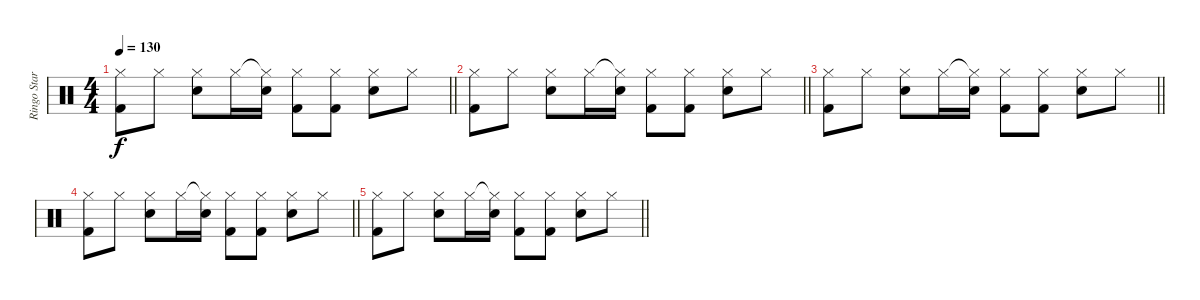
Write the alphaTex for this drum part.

\track ("Ringo Starr" "Ringo Star") {instrument percussion}
\staff {score}
\articulation defaults
\ts (4 4)
\tempo 130
\clef neutral
\barLineRight lightlight
\ks c
("Hi-Hat (closed)" "Kick (hit) 2").8{dy f volume 8} "Hi-Hat (closed)".8 ("Hi-Hat (closed)" "Snare (hit) 2").8 "Hi-Hat (closed)".16 ("Hi-Hat (closed)"{t} "Snare (hit) 2").16 ("Hi-Hat (closed)" "Kick (hit) 2").8 ("Hi-Hat (closed)" "Kick (hit) 2").8 ("Hi-Hat (closed)" "Snare (hit) 2").8 "Hi-Hat (closed)".8 |
\barLineRight lightlight
("Hi-Hat (closed)" "Kick (hit) 2").8 "Hi-Hat (closed)".8 ("Hi-Hat (closed)" "Snare (hit) 2").8 "Hi-Hat (closed)".16 ("Hi-Hat (closed)"{t} "Snare (hit) 2").16 ("Hi-Hat (closed)" "Kick (hit) 2").8 ("Hi-Hat (closed)" "Kick (hit) 2").8 ("Hi-Hat (closed)" "Snare (hit) 2").8 "Hi-Hat (closed)".8 |
\barLineRight lightlight
("Hi-Hat (closed)" "Kick (hit) 2").8 "Hi-Hat (closed)".8 ("Hi-Hat (closed)" "Snare (hit) 2").8 "Hi-Hat (closed)".16 ("Hi-Hat (closed)"{t} "Snare (hit) 2").16 ("Hi-Hat (closed)" "Kick (hit) 2").8 ("Hi-Hat (closed)" "Kick (hit) 2").8 ("Hi-Hat (closed)" "Snare (hit) 2").8{volume 0} "Hi-Hat (closed)".8 |
\barLineRight lightlight
("Hi-Hat (closed)" "Kick (hit) 2").8 "Hi-Hat (closed)".8 ("Hi-Hat (closed)" "Snare (hit) 2").8 "Hi-Hat (closed)".16 ("Hi-Hat (closed)"{t} "Snare (hit) 2").16 ("Hi-Hat (closed)" "Kick (hit) 2").8 ("Hi-Hat (closed)" "Kick (hit) 2").8 ("Hi-Hat (closed)" "Snare (hit) 2").8 "Hi-Hat (closed)".8 |
\barLineRight lightlight
("Hi-Hat (closed)" "Kick (hit) 2").8 "Hi-Hat (closed)".8 ("Hi-Hat (closed)" "Snare (hit) 2").8 "Hi-Hat (closed)".16 ("Hi-Hat (closed)"{t} "Snare (hit) 2").16 ("Hi-Hat (closed)" "Kick (hit) 2").8 ("Hi-Hat (closed)" "Kick (hit) 2").8 ("Hi-Hat (closed)" "Snare (hit) 2").8 "Hi-Hat (closed)".8
